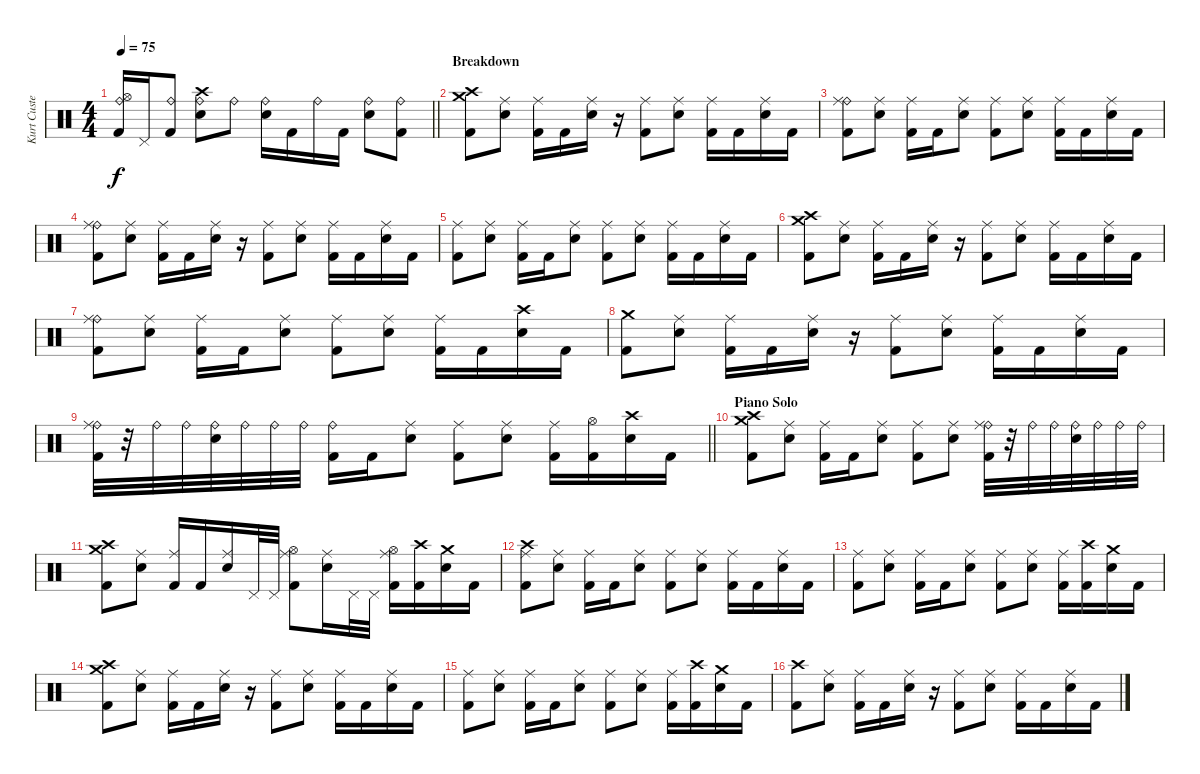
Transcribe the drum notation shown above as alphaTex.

\track ("Kurt Custer - Drums and Percussion" "Kurt Custe") {instrument percussion}
\staff
\articulation defaults
\ts (4 4)
\tempo 75
\clef neutral
\barLineRight lightlight
\ks c
("Ride (bell)" "Hi-Hat (open)" "Kick (hit) 2").16{dy f} "Pedal Hi-Hat (hit)".16 ("Ride (bell)" "Kick (hit) 2").8 ("Ride (bell)" "Crash high (hit)" "Snare (hit) 2").8 "Ride (bell)".8 ("Ride (bell)" "Snare (hit) 2").16 "Kick (hit) 2".16 "Ride (bell)".16 "Kick (hit) 2".16 ("Ride (bell)" "Snare (hit) 2").8 ("Ride (bell)" "Kick (hit) 2").8 |
\section ("" "Breakdown")
("Crash medium (hit)" "Crash high (hit)" "Kick (hit) 2").8 ("Ride (middle)" "Snare (hit) 2").8 ("Ride (middle)" "Kick (hit) 2").16 "Kick (hit) 2".16 ("Ride (middle)" "Snare (hit) 2").16 r.16 ("Ride (middle)" "Kick (hit) 2").8 ("Ride (middle)" "Snare (hit) 2").8 ("Ride (middle)" "Kick (hit) 2").16 "Kick (hit) 2".16 ("Ride (middle)" "Snare (hit) 2").16 "Kick (hit) 2".16 |
("Ride (bell)" "Ride (middle)" "Kick (hit) 2").8 ("Ride (middle)" "Snare (hit) 2").8 ("Ride (middle)" "Kick (hit) 2").16 "Kick (hit) 2".16 ("Ride (middle)" "Snare (hit) 2").8 ("Ride (middle)" "Kick (hit) 2").8 ("Ride (middle)" "Snare (hit) 2").8 ("Ride (middle)" "Kick (hit) 2").16 "Kick (hit) 2".16 ("Ride (middle)" "Snare (hit) 2").16 "Kick (hit) 2".16 |
("Ride (bell)" "Ride (middle)" "Kick (hit) 2").8 ("Ride (middle)" "Snare (hit) 2").8 ("Ride (middle)" "Kick (hit) 2").16 "Kick (hit) 2".16 ("Ride (middle)" "Snare (hit) 2").16 r.16 ("Ride (middle)" "Kick (hit) 2").8 ("Ride (middle)" "Snare (hit) 2").8 ("Ride (middle)" "Kick (hit) 2").16 "Kick (hit) 2".16 ("Ride (middle)" "Snare (hit) 2").16 "Kick (hit) 2".16 |
("Ride (middle)" "Kick (hit) 2").8 ("Ride (middle)" "Snare (hit) 2").8 ("Ride (middle)" "Kick (hit) 2").16 "Kick (hit) 2".16 ("Ride (middle)" "Snare (hit) 2").8 ("Ride (middle)" "Kick (hit) 2").8 ("Ride (middle)" "Snare (hit) 2").8 ("Ride (middle)" "Kick (hit) 2").16 "Kick (hit) 2".16 ("Ride (middle)" "Snare (hit) 2").16 "Kick (hit) 2".16 |
("Crash medium (hit)" "Crash high (hit)" "Kick (hit) 2").8 ("Ride (middle)" "Snare (hit) 2").8 ("Ride (middle)" "Kick (hit) 2").16 "Kick (hit) 2".16 ("Ride (middle)" "Snare (hit) 2").16 r.16 ("Ride (middle)" "Kick (hit) 2").8 ("Ride (middle)" "Snare (hit) 2").8 ("Ride (middle)" "Kick (hit) 2").16 "Kick (hit) 2".16 ("Ride (middle)" "Snare (hit) 2").16 "Kick (hit) 2".16 |
("Ride (bell)" "Ride (middle)" "Kick (hit) 2").8 ("Ride (middle)" "Snare (hit) 2").8 ("Ride (middle)" "Kick (hit) 2").16 "Kick (hit) 2".16 ("Ride (middle)" "Snare (hit) 2").8 ("Ride (middle)" "Kick (hit) 2").8 ("Ride (middle)" "Snare (hit) 2").8 ("Ride (middle)" "Kick (hit) 2").16 "Kick (hit) 2".16 ("Crash high (hit)" "Snare (hit) 2").16 "Kick (hit) 2".16 |
("Crash medium (hit)" "Kick (hit) 2").8 ("Ride (middle)" "Snare (hit) 2").8 ("Ride (middle)" "Kick (hit) 2").16 "Kick (hit) 2".16 ("Ride (middle)" "Snare (hit) 2").16 r.16 ("Ride (middle)" "Kick (hit) 2").8 ("Ride (middle)" "Snare (hit) 2").8 ("Ride (middle)" "Kick (hit) 2").16 "Kick (hit) 2".16 ("Ride (middle)" "Snare (hit) 2").16 "Kick (hit) 2".16 |
\barLineRight lightlight
("Ride (bell)" "Ride (middle)" "Kick (hit) 2").32 r.32 "Ride (bell)".32 "Ride (bell)".32 ("Ride (bell)" "Snare (hit) 2").32 "Ride (bell)".32 "Ride (bell)".32 "Ride (bell)".32 ("Ride (bell)" "Kick (hit) 2").16 "Kick (hit) 2".16 ("Ride (middle)" "Snare (hit) 2").8 ("Ride (middle)" "Kick (hit) 2").8 ("Ride (middle)" "Snare (hit) 2").8 ("Ride (middle)" "Kick (hit) 2").16 ("Hi-Hat (open)" "Kick (hit) 2").16 ("Crash high (hit)" "Snare (hit) 2").16 "Kick (hit) 2".16 |
\section ("" "Piano Solo")
("Crash medium (hit)" "Crash high (hit)" "Kick (hit) 2").8 ("Ride (middle)" "Snare (hit) 2").8 ("Ride (middle)" "Kick (hit) 2").16 "Kick (hit) 2".16 ("Ride (middle)" "Snare (hit) 2").8 ("Ride (middle)" "Kick (hit) 2").8 ("Ride (middle)" "Snare (hit) 2").8 ("Ride (bell)" "Ride (middle)" "Kick (hit) 2").32 r.32 "Ride (bell)".32 "Ride (bell)".32 ("Ride (bell)" "Snare (hit) 2").32 "Ride (bell)".32 "Ride (bell)".32 "Ride (bell)".32 |
("Crash medium (hit)" "Crash high (hit)" "Kick (hit) 2").8 ("Ride (middle)" "Snare (hit) 2").8 ("Ride (middle)" "Kick (hit) 2").16 "Kick (hit) 2".16 ("Ride (middle)" "Snare (hit) 2").16 "Pedal Hi-Hat (hit)".32 "Pedal Hi-Hat (hit)".32 ("Ride (middle)" "Hi-Hat (open)" "Kick (hit) 2").8 ("Ride (middle)" "Snare (hit) 2").16 "Pedal Hi-Hat (hit)".32 "Pedal Hi-Hat (hit)".32 ("Ride (middle)" "Hi-Hat (open)" "Kick (hit) 2").16 ("Crash high (hit)" "Kick (hit) 2").16 ("Crash medium (hit)" "Snare (hit) 2").16 "Kick (hit) 2".16 |
("Crash high (hit)" "Ride (middle)" "Kick (hit) 2").8 ("Ride (middle)" "Snare (hit) 2").8 ("Ride (middle)" "Kick (hit) 2").16 "Kick (hit) 2".16 ("Ride (middle)" "Snare (hit) 2").8 ("Ride (middle)" "Kick (hit) 2").8 ("Ride (middle)" "Snare (hit) 2").8 ("Ride (middle)" "Kick (hit) 2").16 "Kick (hit) 2".16 ("Ride (middle)" "Snare (hit) 2").16 "Kick (hit) 2".16 |
("Ride (middle)" "Kick (hit) 2").8 ("Ride (middle)" "Snare (hit) 2").8 ("Ride (middle)" "Kick (hit) 2").16 "Kick (hit) 2".16 ("Ride (middle)" "Snare (hit) 2").8 ("Ride (middle)" "Kick (hit) 2").8 ("Ride (middle)" "Snare (hit) 2").8 ("Ride (middle)" "Kick (hit) 2").16 ("Crash high (hit)" "Kick (hit) 2").16 ("Crash medium (hit)" "Snare (hit) 2").16 "Kick (hit) 2".16 |
("Crash medium (hit)" "Crash high (hit)" "Kick (hit) 2").8 ("Ride (middle)" "Snare (hit) 2").8 ("Ride (middle)" "Kick (hit) 2").16 "Kick (hit) 2".16 ("Ride (middle)" "Snare (hit) 2").16 r.16 ("Ride (middle)" "Kick (hit) 2").8 ("Ride (middle)" "Snare (hit) 2").8 ("Ride (middle)" "Kick (hit) 2").16 "Kick (hit) 2".16 ("Ride (middle)" "Snare (hit) 2").16 "Kick (hit) 2".16 |
("Ride (middle)" "Kick (hit) 2").8 ("Ride (middle)" "Snare (hit) 2").8 ("Ride (middle)" "Kick (hit) 2").16 "Kick (hit) 2".16 ("Ride (middle)" "Snare (hit) 2").8 ("Ride (middle)" "Kick (hit) 2").8 ("Ride (middle)" "Snare (hit) 2").8 ("Ride (middle)" "Kick (hit) 2").16 ("Crash high (hit)" "Kick (hit) 2").16 ("Crash medium (hit)" "Snare (hit) 2").16 "Kick (hit) 2".16 |
("Crash high (hit)" "Kick (hit) 2").8 ("Ride (middle)" "Snare (hit) 2").8 ("Ride (middle)" "Kick (hit) 2").16 "Kick (hit) 2".16 ("Ride (middle)" "Snare (hit) 2").16 r.16 ("Ride (middle)" "Kick (hit) 2").8 ("Ride (middle)" "Snare (hit) 2").8 ("Ride (middle)" "Kick (hit) 2").16 "Kick (hit) 2".16 ("Ride (middle)" "Snare (hit) 2").16 "Kick (hit) 2".16
